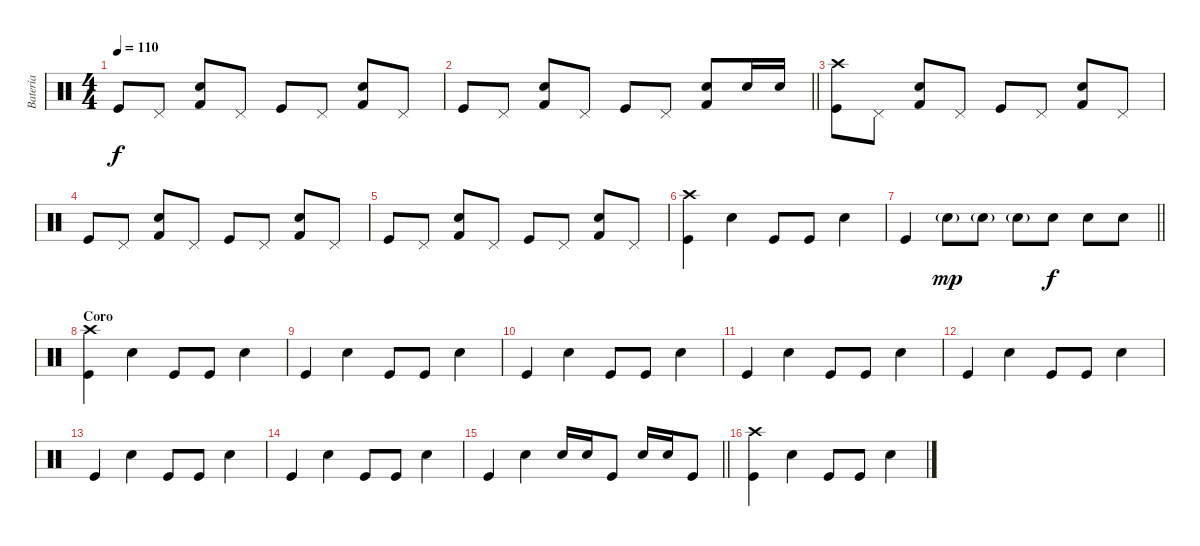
\track ("Batería" "Batería") {instrument percussion}
\staff {score}
\articulation defaults
\ts (4 4)
\tempo 110
\clef neutral
\ks c "Kick (hit)".8{dy f} "Pedal Hi-Hat (hit)".8
("Kick (hit) 2" "Hand Clap (hit)").8 "Pedal Hi-Hat (hit)".8 "Kick (hit)".8 "Pedal Hi-Hat (hit)".8 ("Kick (hit) 2" "Hand Clap (hit)").8 "Pedal Hi-Hat (hit)".8 |
\barLineRight lightlight "Kick (hit)".8 "Pedal Hi-Hat (hit)".8
("Kick (hit) 2" "Hand Clap (hit)").8 "Pedal Hi-Hat (hit)".8 "Kick (hit)".8 "Pedal Hi-Hat (hit)".8 ("Kick (hit) 2" "Hand Clap (hit)").8 "Snare (hit) 2".16 "Snare (hit) 2".16 |
("Kick (hit)" "Crash high (hit)").8 "Pedal Hi-Hat (hit)".8 ("Kick (hit) 2" "Hand Clap (hit)").8 "Pedal Hi-Hat (hit)".8 "Kick (hit)".8 "Pedal Hi-Hat (hit)".8 ("Kick (hit) 2" "Hand Clap (hit)").8 "Pedal Hi-Hat (hit)".8 |
"Kick (hit)".8 "Pedal Hi-Hat (hit)".8 ("Kick (hit) 2" "Hand Clap (hit)").8 "Pedal Hi-Hat (hit)".8 "Kick (hit)".8 "Pedal Hi-Hat (hit)".8 ("Kick (hit) 2" "Hand Clap (hit)").8 "Pedal Hi-Hat (hit)".8 |
"Kick (hit)".8 "Pedal Hi-Hat (hit)".8 ("Kick (hit) 2" "Hand Clap (hit)").8 "Pedal Hi-Hat (hit)".8 "Kick (hit)".8 "Pedal Hi-Hat (hit)".8 ("Kick (hit) 2" "Hand Clap (hit)").8 "Pedal Hi-Hat (hit)".8 |
("Kick (hit)" "Crash high (hit)").4 "Electric Snare (hit)".4 "Kick (hit)".8 "Kick (hit)".8 "Electric Snare (hit)".4 |
\barLineRight lightlight "Kick (hit)".4 "Snare (hit) 2"{g}.8{dy mp} "Snare (hit) 2"{g}.8 "Snare (hit) 2"{g}.8 "Snare (hit) 2".8{dy f} "Snare (hit) 2".8 "Snare (hit) 2".8
|
\section ("" "Coro")
("Kick (hit)" "Crash high (hit)").4 "Electric Snare (hit)".4 "Kick (hit)".8 "Kick (hit)".8 "Electric Snare (hit)".4 |
"Kick (hit)".4 "Electric Snare (hit)".4 "Kick (hit)".8 "Kick (hit)".8 "Electric Snare (hit)".4 |
"Kick (hit)".4 "Electric Snare (hit)".4 "Kick (hit)".8 "Kick (hit)".8 "Electric Snare (hit)".4 |
"Kick (hit)".4 "Electric Snare (hit)".4 "Kick (hit)".8 "Kick (hit)".8 "Electric Snare (hit)".4 |
"Kick (hit)".4 "Electric Snare (hit)".4 "Kick (hit)".8 "Kick (hit)".8 "Electric Snare (hit)".4 |
"Kick (hit)".4 "Electric Snare (hit)".4 "Kick (hit)".8 "Kick (hit)".8 "Electric Snare (hit)".4 |
"Kick (hit)".4 "Electric Snare (hit)".4 "Kick (hit)".8 "Kick (hit)".8 "Electric Snare (hit)".4 |
\barLineRight lightlight "Kick (hit)".4 "Electric Snare (hit)".4 "Snare (hit) 2".16 "Snare (hit) 2".16 "Kick (hit)".8 "Snare (hit) 2".16 "Snare (hit) 2".16 "Kick (hit)".8
|
\section ("" "")
("Kick (hit)" "Crash high (hit)").4 "Electric Snare (hit)".4 "Kick (hit)".8 "Kick (hit)".8 "Electric Snare (hit)".4
